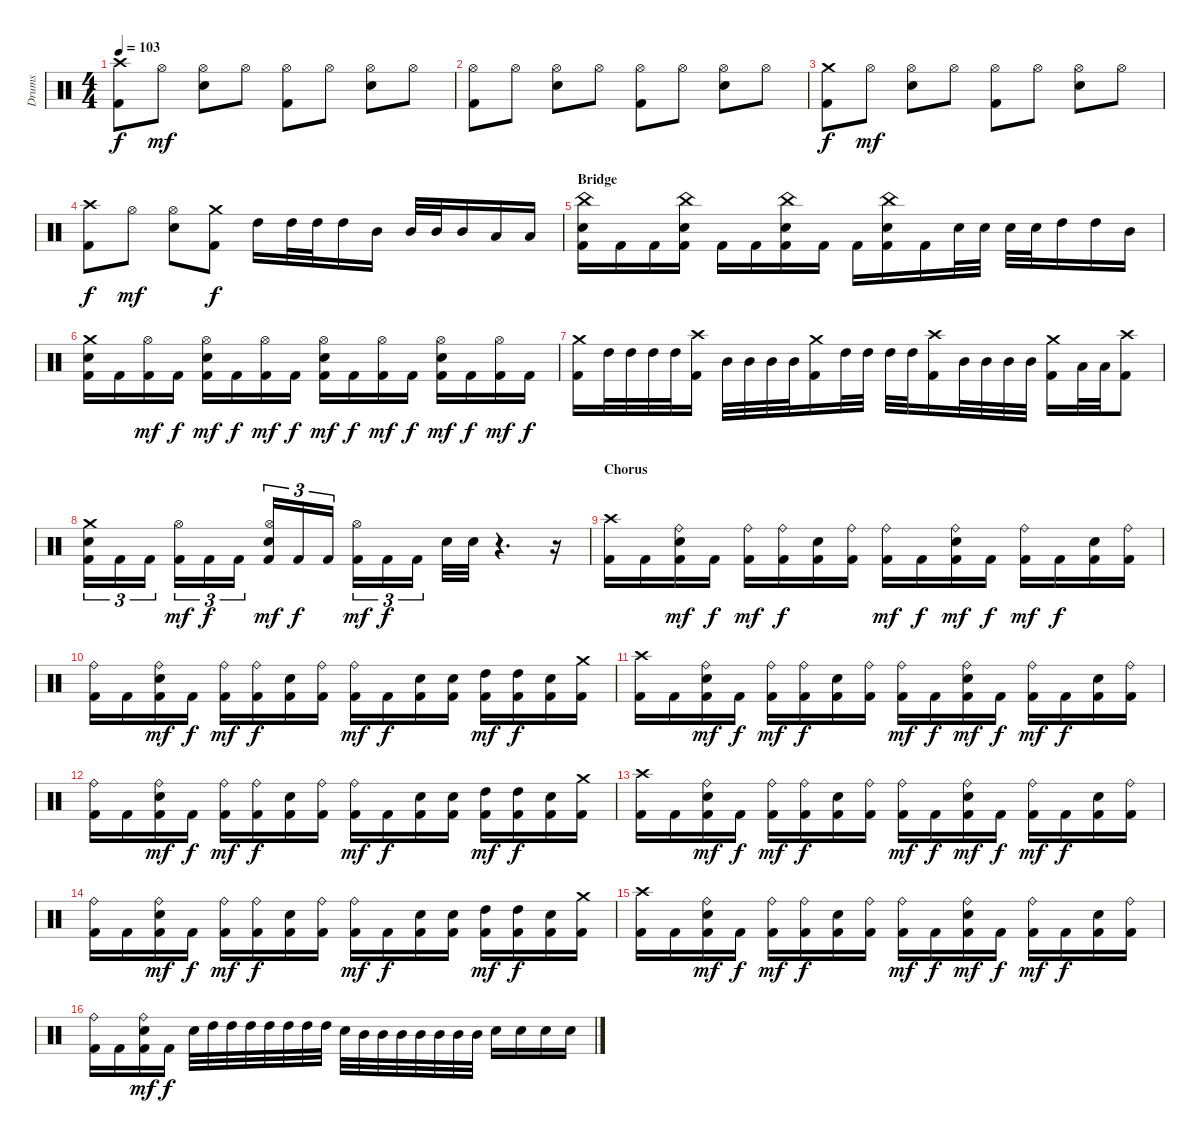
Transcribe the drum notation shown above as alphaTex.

\track ("Drums" "Drums") {instrument percussion}
\staff {score}
\articulation defaults
\ts (4 4)
\tempo 103
\clef neutral
\ks c
("Crash high (hit)" "Kick (hit) 2").8{dy f} "Hi-Hat (open)".8{dy mf} ("Hi-Hat (open)" "Electric Snare (hit)").8 "Hi-Hat (open)".8 ("Hi-Hat (open)" "Kick (hit) 2").8 "Hi-Hat (open)".8 ("Hi-Hat (open)" "Electric Snare (hit)").8 "Hi-Hat (open)".8 |
("Hi-Hat (open)" "Kick (hit) 2").8 "Hi-Hat (open)".8 ("Hi-Hat (open)" "Electric Snare (hit)").8 "Hi-Hat (open)".8 ("Hi-Hat (open)" "Kick (hit) 2").8 "Hi-Hat (open)".8 ("Hi-Hat (open)" "Electric Snare (hit)").8 "Hi-Hat (open)".8 |
("Crash medium (hit)" "Kick (hit) 2").8{dy f} "Hi-Hat (open)".8{dy mf} ("Hi-Hat (open)" "Electric Snare (hit)").8 "Hi-Hat (open)".8 ("Hi-Hat (open)" "Kick (hit) 2").8 "Hi-Hat (open)".8 ("Hi-Hat (open)" "Electric Snare (hit)").8 "Hi-Hat (open)".8 |
("Crash high (hit)" "Kick (hit) 2").8{dy f} "Hi-Hat (open)".8{dy mf} ("Hi-Hat (open)" "Electric Snare (hit)").8 ("Crash medium (hit)" "Kick (hit) 2").8{dy f} "High Tom (hit)".16 "High Tom (hit)".32 "High Tom (hit)".32 "High Tom (hit)".16 "Mid Tom (hit)".16 "Mid Tom (hit)".32 "Mid Tom (hit)".32 "Mid Tom (hit)".16 "Low Tom (hit)".16 "Low Tom (hit)".16 |
\section ("" "Bridge")
("China (hit)" "Electric Snare (hit)" "Kick (hit) 2").16 "Kick (hit) 2".16 "Kick (hit) 2".16 ("China (hit)" "Electric Snare (hit)" "Kick (hit) 2").16 "Kick (hit) 2".16 "Kick (hit) 2".16 ("China (hit)" "Electric Snare (hit)" "Kick (hit) 2").16 "Kick (hit) 2".16 "Kick (hit) 2".16 ("China (hit)" "Electric Snare (hit)" "Kick (hit) 2").16 "Kick (hit) 2".16 "Electric Snare (hit)".32 "Electric Snare (hit)".32 "Electric Snare (hit)".32 "Electric Snare (hit)".32 "High Tom (hit)".16 "High Tom (hit)".16 "Mid Tom (hit)".16 |
("Crash medium (hit)" "Electric Snare (hit)" "Kick (hit) 2").16 "Kick (hit) 2".16 ("Hi-Hat (open)" "Kick (hit) 2").16{dy mf} "Kick (hit) 2".16{dy f} ("Hi-Hat (open)" "Electric Snare (hit)" "Kick (hit) 2").16{dy mf} "Kick (hit) 2".16{dy f} ("Hi-Hat (open)" "Kick (hit) 2").16{dy mf} "Kick (hit) 2".16{dy f} ("Hi-Hat (open)" "Electric Snare (hit)" "Kick (hit) 2").16{dy mf} "Kick (hit) 2".16{dy f} ("Hi-Hat (open)" "Kick (hit) 2").16{dy mf} "Kick (hit) 2".16{dy f} ("Hi-Hat (open)" "Electric Snare (hit)" "Kick (hit) 2").16{dy mf} "Kick (hit) 2".16{dy f} ("Hi-Hat (open)" "Kick (hit) 2").16{dy mf} "Kick (hit) 2".16{dy f} |
("Crash medium (hit)" "Kick (hit) 2").16 "High Tom (hit)".32 "High Tom (hit)".32 "High Tom (hit)".32 "High Tom (hit)".32 ("Crash high (hit)" "Kick (hit) 2").16 "Mid Tom (hit)".32 "Mid Tom (hit)".32 "Mid Tom (hit)".32 "Mid Tom (hit)".32 ("Crash medium (hit)" "Kick (hit) 2").16 "High Tom (hit)".32 "High Tom (hit)".32 "High Tom (hit)".32 "High Tom (hit)".32 ("Crash high (hit)" "Kick (hit) 2").16 "Mid Tom (hit)".32 "Mid Tom (hit)".32 "Mid Tom (hit)".32 "Mid Tom (hit)".32 ("Crash medium (hit)" "Kick (hit) 2").16 "Low Tom (hit)".32 "Low Tom (hit)".32 ("Crash high (hit)" "Kick (hit) 2").8 |
("Crash medium (hit)" "Electric Snare (hit)" "Kick (hit) 2").16{tu (3 2)} "Kick (hit) 2".16{tu (3 2)} "Kick (hit) 2".16{tu (3 2)} ("Hi-Hat (open)" "Kick (hit) 2").16{tu (3 2) dy mf} "Kick (hit) 2".16{tu (3 2) dy f} "Kick (hit) 2".16{tu (3 2)} ("Hi-Hat (open)" "Electric Snare (hit)" "Kick (hit) 2").16{tu (3 2) dy mf} "Kick (hit) 2".16{tu (3 2) dy f} "Kick (hit) 2".16{tu (3 2)} ("Hi-Hat (open)" "Kick (hit) 2").16{tu (3 2) dy mf} "Kick (hit) 2".16{tu (3 2) dy f} "Kick (hit) 2".16{tu (3 2)} "Electric Snare (hit)".32 "Electric Snare (hit)".32 r.4{d} r.16 |
\section ("" "Chorus")
("Crash high (hit)" "Kick (hit) 2").16 "Kick (hit) 2".16 ("Ride (bell)" "Electric Snare (hit)" "Kick (hit) 2").16{dy mf} "Kick (hit) 2".16{dy f} ("Ride (bell)" "Kick (hit) 2").16{dy mf} ("Ride (bell)" "Kick (hit) 2").16{dy f} ("Electric Snare (hit)" "Kick (hit) 2").16 ("Ride (bell)" "Kick (hit) 2").16 ("Ride (bell)" "Kick (hit) 2").16{dy mf} "Kick (hit) 2".16{dy f} ("Ride (bell)" "Electric Snare (hit)" "Kick (hit) 2").16{dy mf} "Kick (hit) 2".16{dy f} ("Ride (bell)" "Kick (hit) 2").16{dy mf} "Kick (hit) 2".16{dy f} ("Electric Snare (hit)" "Kick (hit) 2").16 ("Ride (bell)" "Kick (hit) 2").16 |
("Ride (bell)" "Kick (hit) 2").16 "Kick (hit) 2".16 ("Ride (bell)" "Electric Snare (hit)" "Kick (hit) 2").16{dy mf} "Kick (hit) 2".16{dy f} ("Ride (bell)" "Kick (hit) 2").16{dy mf} ("Ride (bell)" "Kick (hit) 2").16{dy f} ("Electric Snare (hit)" "Kick (hit) 2").16 ("Ride (bell)" "Kick (hit) 2").16 ("Ride (bell)" "Kick (hit) 2").16{dy mf} "Kick (hit) 2".16{dy f} ("Electric Snare (hit)" "Kick (hit) 2").16 ("Electric Snare (hit)" "Kick (hit) 2").16 ("High Tom (hit)" "Kick (hit) 2").16{dy mf} ("High Tom (hit)" "Kick (hit) 2").16{dy f} ("Electric Snare (hit)" "Kick (hit) 2").16 ("Crash medium (hit)" "Kick (hit) 2").16 |
("Crash high (hit)" "Kick (hit) 2").16 "Kick (hit) 2".16 ("Ride (bell)" "Electric Snare (hit)" "Kick (hit) 2").16{dy mf} "Kick (hit) 2".16{dy f} ("Ride (bell)" "Kick (hit) 2").16{dy mf} ("Ride (bell)" "Kick (hit) 2").16{dy f} ("Electric Snare (hit)" "Kick (hit) 2").16 ("Ride (bell)" "Kick (hit) 2").16 ("Ride (bell)" "Kick (hit) 2").16{dy mf} "Kick (hit) 2".16{dy f} ("Ride (bell)" "Electric Snare (hit)" "Kick (hit) 2").16{dy mf} "Kick (hit) 2".16{dy f} ("Ride (bell)" "Kick (hit) 2").16{dy mf} "Kick (hit) 2".16{dy f} ("Electric Snare (hit)" "Kick (hit) 2").16 ("Ride (bell)" "Kick (hit) 2").16 |
("Ride (bell)" "Kick (hit) 2").16 "Kick (hit) 2".16 ("Ride (bell)" "Electric Snare (hit)" "Kick (hit) 2").16{dy mf} "Kick (hit) 2".16{dy f} ("Ride (bell)" "Kick (hit) 2").16{dy mf} ("Ride (bell)" "Kick (hit) 2").16{dy f} ("Electric Snare (hit)" "Kick (hit) 2").16 ("Ride (bell)" "Kick (hit) 2").16 ("Ride (bell)" "Kick (hit) 2").16{dy mf} "Kick (hit) 2".16{dy f} ("Electric Snare (hit)" "Kick (hit) 2").16 ("Electric Snare (hit)" "Kick (hit) 2").16 ("High Tom (hit)" "Kick (hit) 2").16{dy mf} ("High Tom (hit)" "Kick (hit) 2").16{dy f} ("Electric Snare (hit)" "Kick (hit) 2").16 ("Crash medium (hit)" "Kick (hit) 2").16 |
("Crash high (hit)" "Kick (hit) 2").16 "Kick (hit) 2".16 ("Ride (bell)" "Electric Snare (hit)" "Kick (hit) 2").16{dy mf} "Kick (hit) 2".16{dy f} ("Ride (bell)" "Kick (hit) 2").16{dy mf} ("Ride (bell)" "Kick (hit) 2").16{dy f} ("Electric Snare (hit)" "Kick (hit) 2").16 ("Ride (bell)" "Kick (hit) 2").16 ("Ride (bell)" "Kick (hit) 2").16{dy mf} "Kick (hit) 2".16{dy f} ("Ride (bell)" "Electric Snare (hit)" "Kick (hit) 2").16{dy mf} "Kick (hit) 2".16{dy f} ("Ride (bell)" "Kick (hit) 2").16{dy mf} "Kick (hit) 2".16{dy f} ("Electric Snare (hit)" "Kick (hit) 2").16 ("Ride (bell)" "Kick (hit) 2").16 |
("Ride (bell)" "Kick (hit) 2").16 "Kick (hit) 2".16 ("Ride (bell)" "Electric Snare (hit)" "Kick (hit) 2").16{dy mf} "Kick (hit) 2".16{dy f} ("Ride (bell)" "Kick (hit) 2").16{dy mf} ("Ride (bell)" "Kick (hit) 2").16{dy f} ("Electric Snare (hit)" "Kick (hit) 2").16 ("Ride (bell)" "Kick (hit) 2").16 ("Ride (bell)" "Kick (hit) 2").16{dy mf} "Kick (hit) 2".16{dy f} ("Electric Snare (hit)" "Kick (hit) 2").16 ("Electric Snare (hit)" "Kick (hit) 2").16 ("High Tom (hit)" "Kick (hit) 2").16{dy mf} ("High Tom (hit)" "Kick (hit) 2").16{dy f} ("Electric Snare (hit)" "Kick (hit) 2").16 ("Crash medium (hit)" "Kick (hit) 2").16 |
("Crash high (hit)" "Kick (hit) 2").16 "Kick (hit) 2".16 ("Ride (bell)" "Electric Snare (hit)" "Kick (hit) 2").16{dy mf} "Kick (hit) 2".16{dy f} ("Ride (bell)" "Kick (hit) 2").16{dy mf} ("Ride (bell)" "Kick (hit) 2").16{dy f} ("Electric Snare (hit)" "Kick (hit) 2").16 ("Ride (bell)" "Kick (hit) 2").16 ("Ride (bell)" "Kick (hit) 2").16{dy mf} "Kick (hit) 2".16{dy f} ("Ride (bell)" "Electric Snare (hit)" "Kick (hit) 2").16{dy mf} "Kick (hit) 2".16{dy f} ("Ride (bell)" "Kick (hit) 2").16{dy mf} "Kick (hit) 2".16{dy f} ("Electric Snare (hit)" "Kick (hit) 2").16 ("Ride (bell)" "Kick (hit) 2").16 |
("Ride (bell)" "Kick (hit) 2").16 "Kick (hit) 2".16 ("Ride (bell)" "Electric Snare (hit)" "Kick (hit) 2").16{dy mf} "Kick (hit) 2".16{dy f} "Electric Snare (hit)".32 "High Tom (hit)".32 "High Tom (hit)".32 "High Tom (hit)".32 "High Tom (hit)".32 "High Tom (hit)".32 "High Tom (hit)".32 "High Tom (hit)".32 "Electric Snare (hit)".32 "Mid Tom (hit)".32 "Mid Tom (hit)".32 "Mid Tom (hit)".32 "Mid Tom (hit)".32 "Mid Tom (hit)".32 "Mid Tom (hit)".32 "Mid Tom (hit)".32 "Electric Snare (hit)".16 "Electric Snare (hit)".16 "Electric Snare (hit)".16 "Electric Snare (hit)".16
